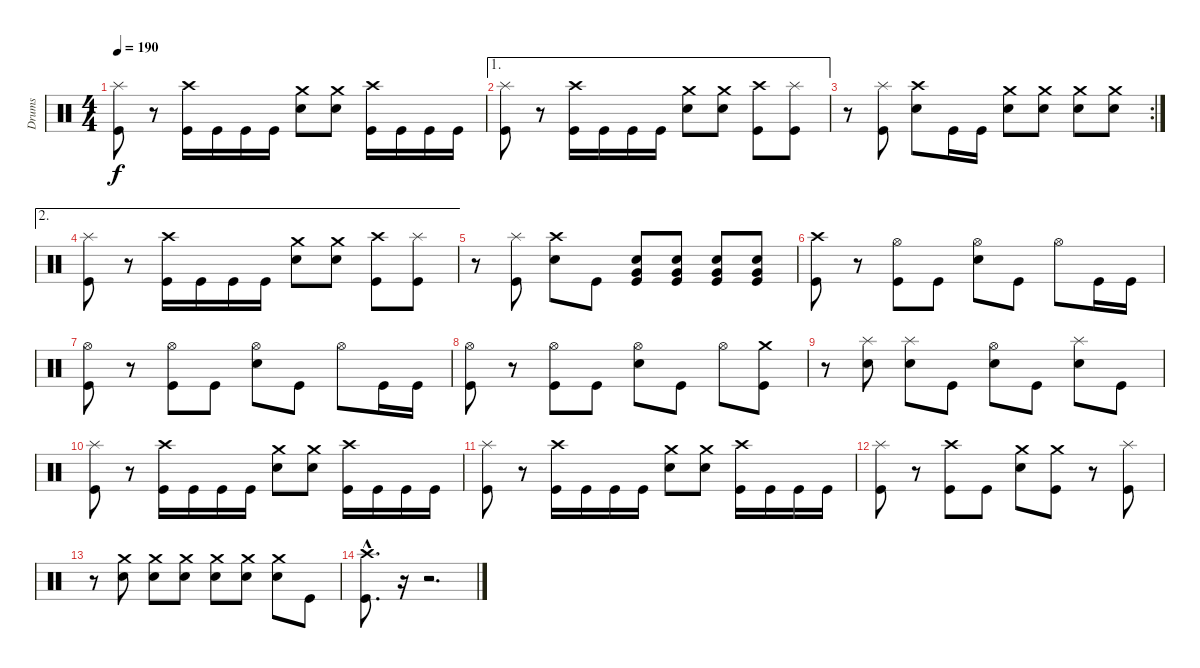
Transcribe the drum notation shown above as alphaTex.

\track ("Drums" "Drums") {instrument percussion}
\staff {score}
\articulation defaults
\ts (4 4)
\tempo 190
\clef neutral
\ks c
("Splash (hit)" "Kick (hit)").8{dy f} r.8 ("Crash high (hit)" "Kick (hit)").16 "Kick (hit)".16 "Kick (hit)".16 "Kick (hit)".16 ("Crash medium (hit)" "Electric Snare (hit)").8 ("Crash medium (hit)" "Electric Snare (hit)").8 ("Crash high (hit)" "Kick (hit)").16 "Kick (hit)".16 "Kick (hit)".16 "Kick (hit)".16 |
\ae 1
("Splash (hit)" "Kick (hit)").8 r.8 ("Crash high (hit)" "Kick (hit)").16 "Kick (hit)".16 "Kick (hit)".16 "Kick (hit)".16 ("Crash medium (hit)" "Electric Snare (hit)").8 ("Crash medium (hit)" "Electric Snare (hit)").8 ("Crash high (hit)" "Kick (hit)").8 ("Splash (hit)" "Kick (hit)").8 |
\rc 2
r.8 ("Splash (hit)" "Kick (hit)").8 ("Crash high (hit)" "Electric Snare (hit)").8 "Kick (hit)".16 "Kick (hit)".16 ("Crash medium (hit)" "Electric Snare (hit)").8 ("Crash medium (hit)" "Electric Snare (hit)").8 ("Crash medium (hit)" "Electric Snare (hit)").8 ("Crash medium (hit)" "Electric Snare (hit)").8 |
\ae 2
("Splash (hit)" "Kick (hit)").8 r.8 ("Crash high (hit)" "Kick (hit)").16 "Kick (hit)".16 "Kick (hit)".16 "Kick (hit)".16 ("Crash medium (hit)" "Electric Snare (hit)").8 ("Crash medium (hit)" "Electric Snare (hit)").8 ("Crash high (hit)" "Kick (hit)").8 ("Splash (hit)" "Kick (hit)").8 |
r.8 ("Splash (hit)" "Kick (hit)").8 ("Crash high (hit)" "Electric Snare (hit)").8 "Kick (hit)".8 ("Very Low Tom (hit)" "Electric Snare (hit)" "Kick (hit)").8 ("Very Low Tom (hit)" "Electric Snare (hit)" "Kick (hit)").8 ("Very Low Tom (hit)" "Electric Snare (hit)" "Kick (hit)").8 ("Very Low Tom (hit)" "Electric Snare (hit)" "Kick (hit)").8 |
("Crash high (hit)" "Kick (hit)").8 r.8 ("Hi-Hat (open)" "Kick (hit)").8 "Kick (hit)".8 ("Hi-Hat (open)" "Electric Snare (hit)").8 "Kick (hit)".8 "Hi-Hat (open)".8 "Kick (hit)".16 "Kick (hit)".16 |
("Hi-Hat (open)" "Kick (hit)").8 r.8 ("Hi-Hat (open)" "Kick (hit)").8 "Kick (hit)".8 ("Hi-Hat (open)" "Electric Snare (hit)").8 "Kick (hit)".8 "Hi-Hat (open)".8 "Kick (hit)".16 "Kick (hit)".16 |
("Hi-Hat (open)" "Kick (hit)").8 r.8 ("Hi-Hat (open)" "Kick (hit)").8 "Kick (hit)".8 ("Hi-Hat (open)" "Electric Snare (hit)").8 "Kick (hit)".8 "Hi-Hat (open)".8 ("Crash medium (hit)" "Kick (hit)").8 |
r.8 ("Splash (hit)" "Electric Snare (hit)").8 ("Splash (hit)" "Electric Snare (hit)").8 "Kick (hit)".8 ("Hi-Hat (open)" "Electric Snare (hit)").8 "Kick (hit)".8 ("Splash (hit)" "Electric Snare (hit)").8 "Kick (hit)".8 |
("Splash (hit)" "Kick (hit)").8 r.8 ("Crash high (hit)" "Kick (hit)").16 "Kick (hit)".16 "Kick (hit)".16 "Kick (hit)".16 ("Crash medium (hit)" "Electric Snare (hit)").8 ("Crash medium (hit)" "Electric Snare (hit)").8 ("Crash high (hit)" "Kick (hit)").16 "Kick (hit)".16 "Kick (hit)".16 "Kick (hit)".16 |
("Splash (hit)" "Kick (hit)").8 r.8 ("Crash high (hit)" "Kick (hit)").16 "Kick (hit)".16 "Kick (hit)".16 "Kick (hit)".16 ("Crash medium (hit)" "Electric Snare (hit)").8 ("Crash medium (hit)" "Electric Snare (hit)").8 ("Crash high (hit)" "Kick (hit)").16 "Kick (hit)".16 "Kick (hit)".16 "Kick (hit)".16 |
("Splash (hit)" "Kick (hit)").8 r.8 ("Crash high (hit)" "Kick (hit)").8 "Kick (hit)".8 ("Crash medium (hit)" "Electric Snare (hit)").8 ("Crash medium (hit)" "Kick (hit)").8 r.8 ("Splash (hit)" "Kick (hit)").8 |
r.8 ("Crash medium (hit)" "Electric Snare (hit)").8 ("Crash medium (hit)" "Electric Snare (hit)").8 ("Crash medium (hit)" "Electric Snare (hit)").8 ("Crash medium (hit)" "Electric Snare (hit)").8 ("Crash medium (hit)" "Electric Snare (hit)").8 ("Crash medium (hit)" "Electric Snare (hit)").8 "Kick (hit)".8 |
("Crash high (hit)"{hac} "Kick (hit)"{hac}).8{d} r.16{volume 0} r.2{d}
